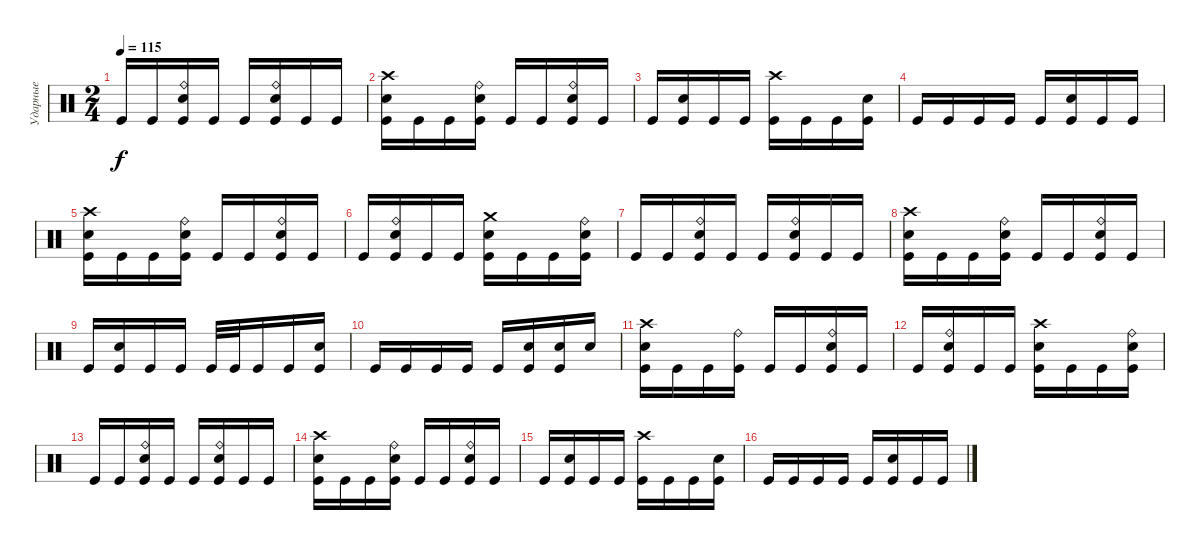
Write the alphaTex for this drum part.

\track ("Ударные" "Ударные") {instrument percussion}
\staff {score}
\articulation defaults
\ts (2 4)
\tempo 115
\clef neutral
\ks c "Kick (hit)".16{dy f} "Kick (hit)".16
("Ride (bell)" "Electric Snare (hit)" "Kick (hit)").16 "Kick (hit)".16 "Kick (hit)".16 ("Ride (bell)" "Electric Snare (hit)" "Kick (hit)").16 "Kick (hit)".16 "Kick (hit)".16 |
("Crash high (hit)" "Electric Snare (hit)" "Kick (hit)").16 "Kick (hit)".16 "Kick (hit)".16 ("Ride (bell)" "Electric Snare (hit)" "Kick (hit)").16 "Kick (hit)".16 "Kick (hit)".16 ("Ride (bell)" "Electric Snare (hit)" "Kick (hit)").16 "Kick (hit)".16 |
"Kick (hit)".16 ("Electric Snare (hit)" "Kick (hit)").16 "Kick (hit)".16 "Kick (hit)".16 ("Crash high (hit)" "Kick (hit)").16 "Kick (hit)".16 "Kick (hit)".16 ("Electric Snare (hit)" "Kick (hit)").16 |
"Kick (hit)".16 "Kick (hit)".16 "Kick (hit)".16 "Kick (hit)".16 "Kick (hit)".16 ("Electric Snare (hit)" "Kick (hit)").16 "Kick (hit)".16 "Kick (hit)".16 |
("Crash high (hit)" "Electric Snare (hit)" "Kick (hit)").16 "Kick (hit)".16 "Kick (hit)".16 ("Ride (bell)" "Electric Snare (hit)" "Kick (hit)").16 "Kick (hit)".16 "Kick (hit)".16 ("Ride (bell)" "Electric Snare (hit)" "Kick (hit)").16 "Kick (hit)".16 |
"Kick (hit)".16 ("Ride (bell)" "Electric Snare (hit)" "Kick (hit)").16 "Kick (hit)".16 "Kick (hit)".16 ("Crash medium (hit)" "Electric Snare (hit)" "Kick (hit)").16 "Kick (hit)".16 "Kick (hit)".16 ("Ride (bell)" "Electric Snare (hit)" "Kick (hit)").16 |
"Kick (hit)".16 "Kick (hit)".16 ("Ride (bell)" "Electric Snare (hit)" "Kick (hit)").16 "Kick (hit)".16 "Kick (hit)".16 ("Ride (bell)" "Electric Snare (hit)" "Kick (hit)").16 "Kick (hit)".16 "Kick (hit)".16 |
("Crash high (hit)" "Electric Snare (hit)" "Kick (hit)").16 "Kick (hit)".16 "Kick (hit)".16 ("Ride (bell)" "Electric Snare (hit)" "Kick (hit)").16 "Kick (hit)".16 "Kick (hit)".16 ("Ride (bell)" "Electric Snare (hit)" "Kick (hit)").16 "Kick (hit)".16 |
"Kick (hit)".16 ("Electric Snare (hit)" "Kick (hit)").16 "Kick (hit)".16 "Kick (hit)".16 "Kick (hit)".32 "Kick (hit)".32 "Kick (hit)".16 "Kick (hit)".16 ("Electric Snare (hit)" "Kick (hit)").16 |
"Kick (hit)".16 "Kick (hit)".16 "Kick (hit)".16 "Kick (hit)".16 "Kick (hit)".16 ("Electric Snare (hit)" "Kick (hit)").16 ("Electric Snare (hit)" "Kick (hit)").16 "Electric Snare (hit)".16 |
("Crash high (hit)" "Electric Snare (hit)" "Kick (hit)").16 "Kick (hit)".16 "Kick (hit)".16 ("Ride (bell)" "Kick (hit)").16 "Kick (hit)".16 "Kick (hit)".16 ("Ride (bell)" "Electric Snare (hit)" "Kick (hit)").16 "Kick (hit)".16 |
"Kick (hit)".16 ("Ride (bell)" "Electric Snare (hit)" "Kick (hit)").16 "Kick (hit)".16 "Kick (hit)".16 ("Crash high (hit)" "Electric Snare (hit)" "Kick (hit)").16 "Kick (hit)".16 "Kick (hit)".16 ("Ride (bell)" "Electric Snare (hit)" "Kick (hit)").16 |
"Kick (hit)".16 "Kick (hit)".16 ("Ride (bell)" "Electric Snare (hit)" "Kick (hit)").16 "Kick (hit)".16 "Kick (hit)".16 ("Ride (bell)" "Electric Snare (hit)" "Kick (hit)").16 "Kick (hit)".16 "Kick (hit)".16 |
("Crash high (hit)" "Electric Snare (hit)" "Kick (hit)").16 "Kick (hit)".16 "Kick (hit)".16 ("Ride (bell)" "Electric Snare (hit)" "Kick (hit)").16 "Kick (hit)".16 "Kick (hit)".16 ("Ride (bell)" "Electric Snare (hit)" "Kick (hit)").16 "Kick (hit)".16 |
"Kick (hit)".16 ("Electric Snare (hit)" "Kick (hit)").16 "Kick (hit)".16 "Kick (hit)".16 ("Crash high (hit)" "Kick (hit)").16 "Kick (hit)".16 "Kick (hit)".16 ("Electric Snare (hit)" "Kick (hit)").16 |
"Kick (hit)".16 "Kick (hit)".16 "Kick (hit)".16 "Kick (hit)".16 "Kick (hit)".16 ("Electric Snare (hit)" "Kick (hit)").16 "Kick (hit)".16 "Kick (hit)".16
